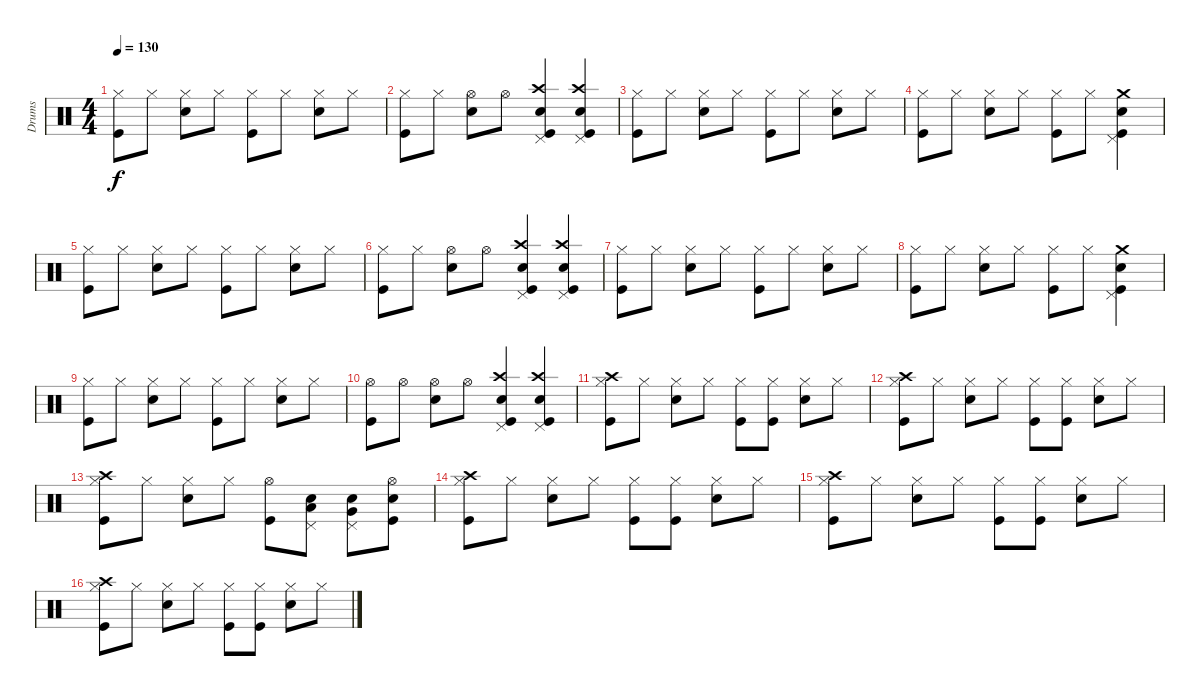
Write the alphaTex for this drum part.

\track ("Drums" "Drums") {instrument percussion}
\staff {score}
\articulation defaults
\ts (4 4)
\tempo 130
\clef neutral
\ks c
("Hi-Hat (closed)" "Kick (hit)").8{dy f} "Hi-Hat (closed)".8 ("Hi-Hat (closed)" "Electric Snare (hit)").8 "Hi-Hat (closed)".8 ("Hi-Hat (closed)" "Kick (hit)").8 "Hi-Hat (closed)".8 ("Hi-Hat (closed)" "Electric Snare (hit)").8 "Hi-Hat (closed)".8 |
("Hi-Hat (closed)" "Kick (hit)").8 "Hi-Hat (closed)".8 ("Hi-Hat (open)" "Electric Snare (hit)").8 "Hi-Hat (open)".8 ("Crash high (hit)" "Pedal Hi-Hat (hit)" "Electric Snare (hit)" "Kick (hit)").4 ("Crash high (hit)" "Pedal Hi-Hat (hit)" "Electric Snare (hit)" "Kick (hit)").4 |
("Hi-Hat (closed)" "Kick (hit)").8 "Hi-Hat (closed)".8 ("Hi-Hat (closed)" "Electric Snare (hit)").8 "Hi-Hat (closed)".8 ("Hi-Hat (closed)" "Kick (hit)").8 "Hi-Hat (closed)".8 ("Hi-Hat (closed)" "Electric Snare (hit)").8 "Hi-Hat (closed)".8 |
("Hi-Hat (closed)" "Kick (hit)").8 "Hi-Hat (closed)".8 ("Hi-Hat (closed)" "Electric Snare (hit)").8 "Hi-Hat (closed)".8 ("Hi-Hat (closed)" "Kick (hit)").8 "Hi-Hat (closed)".8 ("Crash medium (hit)" "Pedal Hi-Hat (hit)" "Electric Snare (hit)" "Kick (hit)").4 |
("Hi-Hat (closed)" "Kick (hit)").8 "Hi-Hat (closed)".8 ("Hi-Hat (closed)" "Electric Snare (hit)").8 "Hi-Hat (closed)".8 ("Hi-Hat (closed)" "Kick (hit)").8 "Hi-Hat (closed)".8 ("Hi-Hat (closed)" "Electric Snare (hit)").8 "Hi-Hat (closed)".8 |
("Hi-Hat (closed)" "Kick (hit)").8 "Hi-Hat (closed)".8 ("Hi-Hat (open)" "Electric Snare (hit)").8 "Hi-Hat (open)".8 ("Crash high (hit)" "Pedal Hi-Hat (hit)" "Electric Snare (hit)" "Kick (hit)").4 ("Crash high (hit)" "Pedal Hi-Hat (hit)" "Electric Snare (hit)" "Kick (hit)").4 |
("Hi-Hat (closed)" "Kick (hit)").8 "Hi-Hat (closed)".8 ("Hi-Hat (closed)" "Electric Snare (hit)").8 "Hi-Hat (closed)".8 ("Hi-Hat (closed)" "Kick (hit)").8 "Hi-Hat (closed)".8 ("Hi-Hat (closed)" "Electric Snare (hit)").8 "Hi-Hat (closed)".8 |
("Hi-Hat (closed)" "Kick (hit)").8 "Hi-Hat (closed)".8 ("Hi-Hat (closed)" "Electric Snare (hit)").8 "Hi-Hat (closed)".8 ("Hi-Hat (closed)" "Kick (hit)").8 "Hi-Hat (closed)".8 ("Crash medium (hit)" "Pedal Hi-Hat (hit)" "Electric Snare (hit)" "Kick (hit)").4 |
("Hi-Hat (closed)" "Kick (hit)").8 "Hi-Hat (closed)".8 ("Hi-Hat (closed)" "Electric Snare (hit)").8 "Hi-Hat (closed)".8 ("Hi-Hat (closed)" "Kick (hit)").8 "Hi-Hat (closed)".8 ("Hi-Hat (closed)" "Electric Snare (hit)").8 "Hi-Hat (closed)".8 |
("Hi-Hat (open)" "Kick (hit)").8{volume 16} "Hi-Hat (open)".8 ("Hi-Hat (open)" "Electric Snare (hit)").8 "Hi-Hat (open)".8 ("Crash high (hit)" "Pedal Hi-Hat (hit)" "Electric Snare (hit)" "Kick (hit)").4 ("Crash high (hit)" "Pedal Hi-Hat (hit)" "Electric Snare (hit)" "Kick (hit)").4 |
("Crash high (hit)" "Hi-Hat (closed)" "Kick (hit)").8{volume 16} "Hi-Hat (closed)".8 ("Hi-Hat (closed)" "Electric Snare (hit)").8 "Hi-Hat (closed)".8 ("Hi-Hat (closed)" "Kick (hit)").8 ("Hi-Hat (closed)" "Kick (hit)").8 ("Hi-Hat (closed)" "Electric Snare (hit)").8 "Hi-Hat (closed)".8 |
("Crash high (hit)" "Hi-Hat (closed)" "Kick (hit)").8 "Hi-Hat (closed)".8 ("Hi-Hat (closed)" "Electric Snare (hit)").8 "Hi-Hat (closed)".8 ("Hi-Hat (closed)" "Kick (hit)").8 ("Hi-Hat (closed)" "Kick (hit)").8 ("Hi-Hat (closed)" "Electric Snare (hit)").8 "Hi-Hat (closed)".8 |
("Crash high (hit)" "Hi-Hat (closed)" "Kick (hit)").8 "Hi-Hat (closed)".8 ("Hi-Hat (closed)" "Electric Snare (hit)").8 "Hi-Hat (closed)".8 ("Hi-Hat (open)" "Kick (hit)").8 ("Pedal Hi-Hat (hit)" "Electric Snare (hit)" "Low Floor Tom (hit)").8 ("Pedal Hi-Hat (hit)" "Electric Snare (hit)" "Very Low Tom (hit)").8 ("Hi-Hat (open)" "Electric Snare (hit)" "Kick (hit)").8 |
("Crash high (hit)" "Hi-Hat (closed)" "Kick (hit)").8 "Hi-Hat (closed)".8 ("Hi-Hat (closed)" "Electric Snare (hit)").8 "Hi-Hat (closed)".8 ("Hi-Hat (closed)" "Kick (hit)").8 ("Hi-Hat (closed)" "Kick (hit)").8 ("Hi-Hat (closed)" "Electric Snare (hit)").8 "Hi-Hat (closed)".8 |
("Crash high (hit)" "Hi-Hat (closed)" "Kick (hit)").8 "Hi-Hat (closed)".8 ("Hi-Hat (closed)" "Electric Snare (hit)").8 "Hi-Hat (closed)".8 ("Hi-Hat (closed)" "Kick (hit)").8 ("Hi-Hat (closed)" "Kick (hit)").8 ("Hi-Hat (closed)" "Electric Snare (hit)").8 "Hi-Hat (closed)".8 |
("Crash high (hit)" "Hi-Hat (closed)" "Kick (hit)").8 "Hi-Hat (closed)".8 ("Hi-Hat (closed)" "Electric Snare (hit)").8 "Hi-Hat (closed)".8 ("Hi-Hat (closed)" "Kick (hit)").8 ("Hi-Hat (closed)" "Kick (hit)").8 ("Hi-Hat (closed)" "Electric Snare (hit)").8 "Hi-Hat (closed)".8
